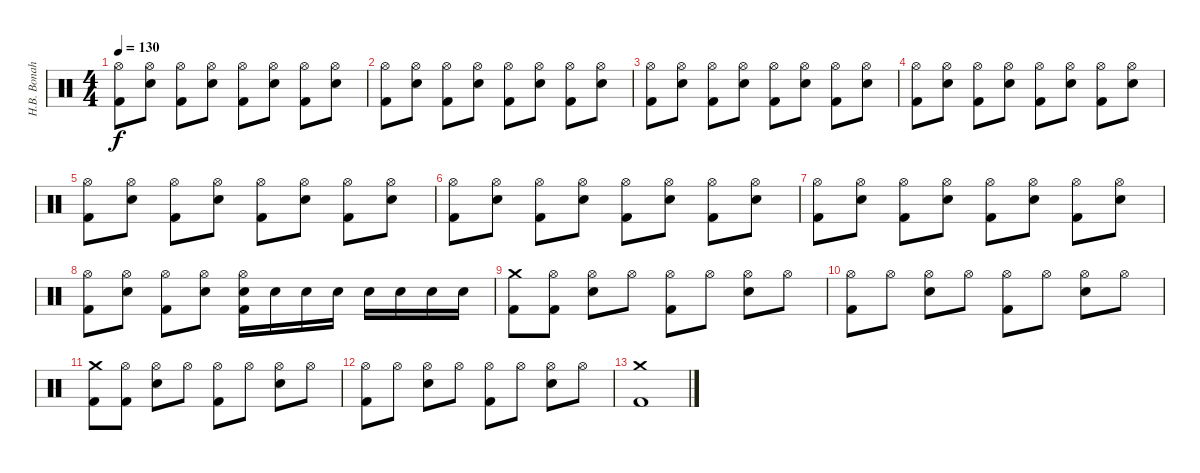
\track ("H.B. Bonah" "H.B. Bonah") {instrument percussion}
\staff {score}
\articulation defaults
\ts (4 4)
\tempo 130
\clef neutral
\ks c
("Hi-Hat (open)" "Kick (hit) 2").8{dy f} ("Hi-Hat (open)" "Electric Snare (hit)").8 ("Hi-Hat (open)" "Kick (hit) 2").8 ("Hi-Hat (open)" "Electric Snare (hit)").8 ("Hi-Hat (open)" "Kick (hit) 2").8 ("Hi-Hat (open)" "Electric Snare (hit)").8 ("Hi-Hat (open)" "Kick (hit) 2").8 ("Hi-Hat (open)" "Electric Snare (hit)").8 |
("Hi-Hat (open)" "Kick (hit) 2").8 ("Hi-Hat (open)" "Electric Snare (hit)").8 ("Hi-Hat (open)" "Kick (hit) 2").8 ("Hi-Hat (open)" "Electric Snare (hit)").8 ("Hi-Hat (open)" "Kick (hit) 2").8 ("Hi-Hat (open)" "Electric Snare (hit)").8 ("Hi-Hat (open)" "Kick (hit) 2").8 ("Hi-Hat (open)" "Electric Snare (hit)").8 |
("Hi-Hat (open)" "Kick (hit) 2").8 ("Hi-Hat (open)" "Electric Snare (hit)").8 ("Hi-Hat (open)" "Kick (hit) 2").8 ("Hi-Hat (open)" "Electric Snare (hit)").8 ("Hi-Hat (open)" "Kick (hit) 2").8 ("Hi-Hat (open)" "Electric Snare (hit)").8 ("Hi-Hat (open)" "Kick (hit) 2").8 ("Hi-Hat (open)" "Electric Snare (hit)").8 |
("Hi-Hat (open)" "Kick (hit) 2").8 ("Hi-Hat (open)" "Electric Snare (hit)").8 ("Hi-Hat (open)" "Kick (hit) 2").8 ("Hi-Hat (open)" "Electric Snare (hit)").8 ("Hi-Hat (open)" "Kick (hit) 2").8 ("Hi-Hat (open)" "Electric Snare (hit)").8 ("Hi-Hat (open)" "Kick (hit) 2").8 ("Hi-Hat (open)" "Electric Snare (hit)").8 |
("Hi-Hat (open)" "Kick (hit) 2").8 ("Hi-Hat (open)" "Electric Snare (hit)").8 ("Hi-Hat (open)" "Kick (hit) 2").8 ("Hi-Hat (open)" "Electric Snare (hit)").8 ("Hi-Hat (open)" "Kick (hit) 2").8 ("Hi-Hat (open)" "Electric Snare (hit)").8 ("Hi-Hat (open)" "Kick (hit) 2").8 ("Hi-Hat (open)" "Electric Snare (hit)").8 |
("Hi-Hat (open)" "Kick (hit) 2").8 ("Hi-Hat (open)" "Electric Snare (hit)").8 ("Hi-Hat (open)" "Kick (hit) 2").8 ("Hi-Hat (open)" "Electric Snare (hit)").8 ("Hi-Hat (open)" "Kick (hit) 2").8 ("Hi-Hat (open)" "Electric Snare (hit)").8 ("Hi-Hat (open)" "Kick (hit) 2").8 ("Hi-Hat (open)" "Electric Snare (hit)").8 |
("Hi-Hat (open)" "Kick (hit) 2").8 ("Hi-Hat (open)" "Electric Snare (hit)").8 ("Hi-Hat (open)" "Kick (hit) 2").8 ("Hi-Hat (open)" "Electric Snare (hit)").8 ("Hi-Hat (open)" "Kick (hit) 2").8 ("Hi-Hat (open)" "Electric Snare (hit)").8 ("Hi-Hat (open)" "Kick (hit) 2").8 ("Hi-Hat (open)" "Electric Snare (hit)").8 |
("Hi-Hat (open)" "Kick (hit) 2").8 ("Hi-Hat (open)" "Electric Snare (hit)").8 ("Hi-Hat (open)" "Kick (hit) 2").8 ("Hi-Hat (open)" "Electric Snare (hit)").8 ("Hi-Hat (open)" "Electric Snare (hit)" "Kick (hit) 2").16 "Electric Snare (hit)".16 "Electric Snare (hit)".16 "Electric Snare (hit)".16 "Electric Snare (hit)".16 "Electric Snare (hit)".16 "Electric Snare (hit)".16 "Electric Snare (hit)".16 |
("Crash medium (hit)" "Kick (hit) 2").8 ("Hi-Hat (open)" "Kick (hit) 2").8 ("Hi-Hat (open)" "Electric Snare (hit)").8 "Hi-Hat (open)".8 ("Hi-Hat (open)" "Kick (hit) 2").8 "Hi-Hat (open)".8 ("Hi-Hat (open)" "Electric Snare (hit)").8 "Hi-Hat (open)".8 |
("Hi-Hat (open)" "Kick (hit) 2").8 "Hi-Hat (open)".8 ("Hi-Hat (open)" "Electric Snare (hit)").8 "Hi-Hat (open)".8 ("Hi-Hat (open)" "Kick (hit) 2").8 "Hi-Hat (open)".8 ("Hi-Hat (open)" "Electric Snare (hit)").8 "Hi-Hat (open)".8 |
("Crash medium (hit)" "Kick (hit) 2").8 ("Hi-Hat (open)" "Kick (hit) 2").8 ("Hi-Hat (open)" "Electric Snare (hit)").8 "Hi-Hat (open)".8 ("Hi-Hat (open)" "Kick (hit) 2").8 "Hi-Hat (open)".8 ("Hi-Hat (open)" "Electric Snare (hit)").8 "Hi-Hat (open)".8 |
("Hi-Hat (open)" "Kick (hit) 2").8 "Hi-Hat (open)".8 ("Hi-Hat (open)" "Electric Snare (hit)").8 "Hi-Hat (open)".8 ("Hi-Hat (open)" "Kick (hit) 2").8 "Hi-Hat (open)".8 ("Hi-Hat (open)" "Electric Snare (hit)").8 "Hi-Hat (open)".8 |
("Crash medium (hit)" "Kick (hit) 2").1
